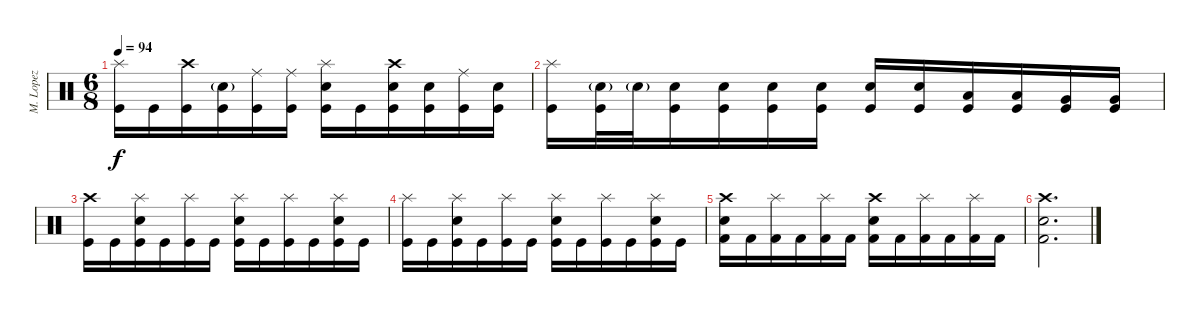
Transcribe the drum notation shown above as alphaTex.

\track ("M. Lopez" "M. Lopez") {instrument percussion}
\staff {score}
\articulation defaults
\ts (6 8)
\tempo 94
\clef neutral
\ks c
("Splash (hit)" "Kick (hit)").16{dy f} "Kick (hit)".16 ("Crash high (hit)" "Kick (hit)").16 ("Electric Snare (hit)"{g} "Kick (hit)").16 ("Ride (middle)" "Kick (hit)").16 ("Ride (middle)" "Kick (hit)").16 ("Splash (hit)" "Electric Snare (hit)" "Kick (hit)").16 "Kick (hit)".16 ("Crash high (hit)" "Electric Snare (hit)" "Kick (hit)").16 ("Electric Snare (hit)" "Kick (hit)").16 ("Ride (middle)" "Kick (hit)").16 ("Electric Snare (hit)" "Kick (hit)").16 |
("Splash (hit)" "Kick (hit)").16 ("Electric Snare (hit)"{g} "Kick (hit)").32 "Electric Snare (hit)"{g}.32 ("Electric Snare (hit)" "Kick (hit)").16 ("Electric Snare (hit)" "Kick (hit)").16 ("Electric Snare (hit)" "Kick (hit)").16 ("Electric Snare (hit)" "Kick (hit)").16 ("Electric Snare (hit)" "Kick (hit)").16 ("Electric Snare (hit)" "Kick (hit)").16 ("Low Tom (hit)" "Kick (hit)").16 ("Low Tom (hit)" "Kick (hit)").16 ("Very Low Tom (hit)" "Kick (hit)").16 ("Very Low Tom (hit)" "Kick (hit)").16 |
("Crash high (hit)" "Kick (hit)").16 "Kick (hit)".16 ("Splash (hit)" "Electric Snare (hit)" "Kick (hit)").16 "Kick (hit)".16 ("Splash (hit)" "Kick (hit)").16 "Kick (hit)".16 ("Splash (hit)" "Electric Snare (hit)" "Kick (hit)").16 "Kick (hit)".16 ("Splash (hit)" "Kick (hit)").16 "Kick (hit)".16 ("Splash (hit)" "Electric Snare (hit)" "Kick (hit)").16 "Kick (hit)".16 |
("Splash (hit)" "Kick (hit)").16 "Kick (hit)".16 ("Splash (hit)" "Electric Snare (hit)" "Kick (hit)").16 "Kick (hit)".16 ("Splash (hit)" "Kick (hit)").16 "Kick (hit)".16 ("Splash (hit)" "Electric Snare (hit)" "Kick (hit)").16 "Kick (hit)".16 ("Splash (hit)" "Kick (hit)").16 "Kick (hit)".16 ("Splash (hit)" "Electric Snare (hit)" "Kick (hit)").16 "Kick (hit)".16 |
("Crash high (hit)" "Electric Snare (hit)" "Kick (hit) 2").16 "Kick (hit) 2".16 ("Splash (hit)" "Kick (hit) 2").16 "Kick (hit) 2".16 ("Splash (hit)" "Kick (hit) 2").16 "Kick (hit) 2".16 ("Crash high (hit)" "Electric Snare (hit)" "Kick (hit) 2").16 "Kick (hit) 2".16 ("Splash (hit)" "Kick (hit) 2").16 "Kick (hit) 2".16 ("Splash (hit)" "Kick (hit) 2").16 "Kick (hit) 2".16 |
("Crash high (hit)" "Electric Snare (hit)" "Kick (hit) 2").2{d}
